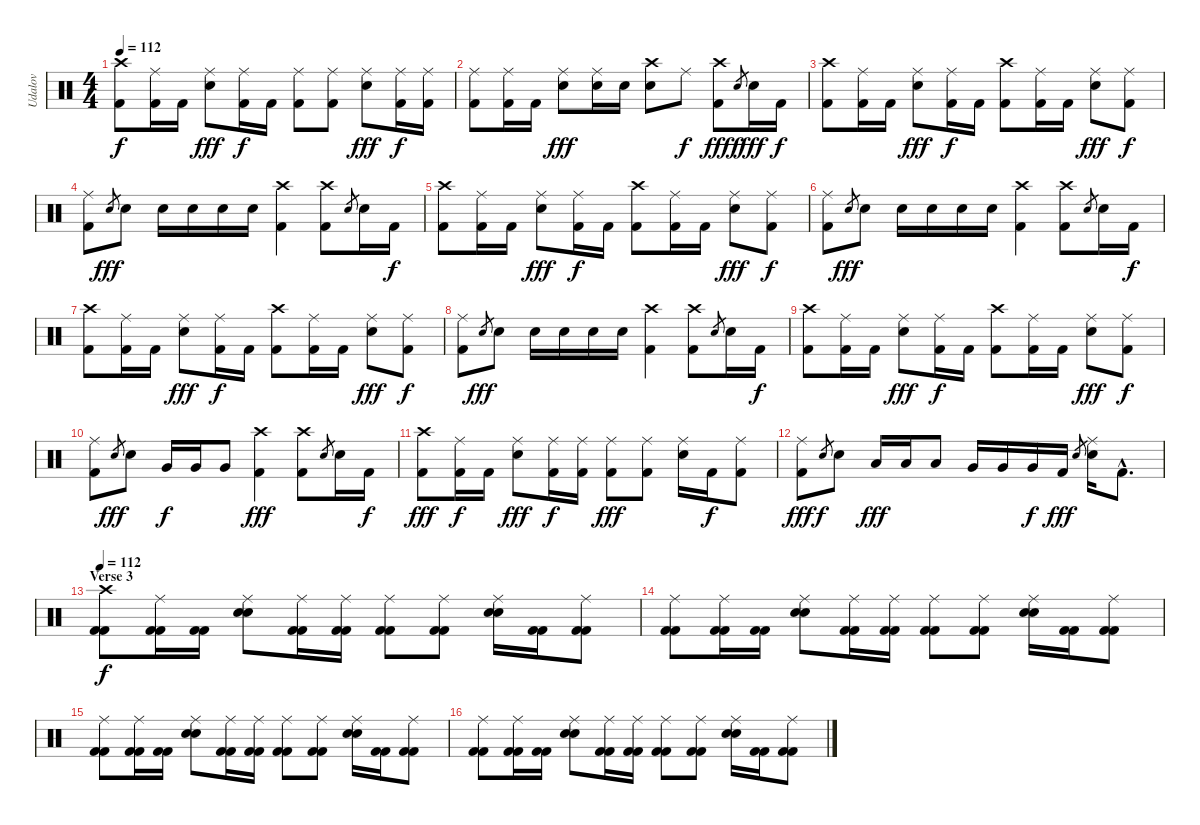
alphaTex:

\track ("Udalov" "Udalov") {instrument percussion}
\staff {score}
\articulation defaults
\ts (4 4)
\tempo 112
\clef neutral
\ks c
("Crash high (hit)" "Kick (hit) 2").8{dy f} ("Ride (middle)" "Kick (hit) 2").16 "Kick (hit) 2".16 ("Ride (middle)" "Electric Snare (hit)").8{dy fff} ("Ride (middle)" "Kick (hit) 2").16{dy f} "Kick (hit) 2".16 ("Ride (middle)" "Kick (hit) 2").8 ("Ride (middle)" "Kick (hit) 2").8 ("Ride (middle)" "Electric Snare (hit)").8{dy fff} ("Ride (middle)" "Kick (hit) 2").16{dy f} ("Ride (middle)" "Kick (hit) 2").16 |
("Ride (middle)" "Kick (hit) 2").8 ("Ride (middle)" "Kick (hit) 2").16 "Kick (hit) 2".16 ("Ride (middle)" "Electric Snare (hit)").8{dy fff} ("Ride (middle)" "Electric Snare (hit)").16 "Electric Snare (hit)".16 ("Crash high (hit)" "Electric Snare (hit)").8 "Ride (middle)".8{dy f} ("Crash high (hit)" "Kick (hit) 2").8{dy fff} "Electric Snare (hit)".8{gr dy f} "Electric Snare (hit)".16{dy fff} "Kick (hit) 2".16{dy f} |
("Crash high (hit)" "Kick (hit) 2").8 ("Ride (middle)" "Kick (hit) 2").16 "Kick (hit) 2".16 ("Ride (middle)" "Electric Snare (hit)").8{dy fff} ("Ride (middle)" "Kick (hit) 2").16{dy f} "Kick (hit) 2".16 ("Crash high (hit)" "Kick (hit) 2").8 ("Ride (middle)" "Kick (hit) 2").16 "Kick (hit) 2".16 ("Ride (middle)" "Electric Snare (hit)").8{dy fff} ("Ride (middle)" "Kick (hit) 2").8{dy f} |
("Ride (middle)" "Kick (hit) 2").8 "Electric Snare (hit)".8{gr dy fff} "Electric Snare (hit)".8 "Electric Snare (hit)".16 "Electric Snare (hit)".16 "Electric Snare (hit)".16 "Electric Snare (hit)".16 ("Crash high (hit)" "Kick (hit) 2").4 ("Crash high (hit)" "Kick (hit) 2").8 "Electric Snare (hit)".8{gr} "Electric Snare (hit)".16 "Kick (hit) 2".16{dy f} |
("Crash high (hit)" "Kick (hit) 2").8 ("Ride (middle)" "Kick (hit) 2").16 "Kick (hit) 2".16 ("Ride (middle)" "Electric Snare (hit)").8{dy fff} ("Ride (middle)" "Kick (hit) 2").16{dy f} "Kick (hit) 2".16 ("Crash high (hit)" "Kick (hit) 2").8 ("Ride (middle)" "Kick (hit) 2").16 "Kick (hit) 2".16 ("Ride (middle)" "Electric Snare (hit)").8{dy fff} ("Ride (middle)" "Kick (hit) 2").8{dy f} |
("Ride (middle)" "Kick (hit) 2").8 "Electric Snare (hit)".8{gr dy fff} "Electric Snare (hit)".8 "Electric Snare (hit)".16 "Electric Snare (hit)".16 "Electric Snare (hit)".16 "Electric Snare (hit)".16 ("Crash high (hit)" "Kick (hit) 2").4 ("Crash high (hit)" "Kick (hit) 2").8 "Electric Snare (hit)".8{gr} "Electric Snare (hit)".16 "Kick (hit) 2".16{dy f} |
("Crash high (hit)" "Kick (hit) 2").8 ("Ride (middle)" "Kick (hit) 2").16 "Kick (hit) 2".16 ("Ride (middle)" "Electric Snare (hit)").8{dy fff} ("Ride (middle)" "Kick (hit) 2").16{dy f} "Kick (hit) 2".16 ("Crash high (hit)" "Kick (hit) 2").8 ("Ride (middle)" "Kick (hit) 2").16 "Kick (hit) 2".16 ("Ride (middle)" "Electric Snare (hit)").8{dy fff} ("Ride (middle)" "Kick (hit) 2").8{dy f} |
("Ride (middle)" "Kick (hit) 2").8 "Electric Snare (hit)".8{gr dy fff} "Electric Snare (hit)".8 "Electric Snare (hit)".16 "Electric Snare (hit)".16 "Electric Snare (hit)".16 "Electric Snare (hit)".16 ("Crash high (hit)" "Kick (hit) 2").4 ("Crash high (hit)" "Kick (hit) 2").8 "Electric Snare (hit)".8{gr} "Electric Snare (hit)".16 "Kick (hit) 2".16{dy f} |
("Crash high (hit)" "Kick (hit) 2").8 ("Ride (middle)" "Kick (hit) 2").16 "Kick (hit) 2".16 ("Ride (middle)" "Electric Snare (hit)").8{dy fff} ("Ride (middle)" "Kick (hit) 2").16{dy f} "Kick (hit) 2".16 ("Crash high (hit)" "Kick (hit) 2").8 ("Ride (middle)" "Kick (hit) 2").16 "Kick (hit) 2".16 ("Ride (middle)" "Electric Snare (hit)").8{dy fff} ("Ride (middle)" "Kick (hit) 2").8{dy f} |
("Ride (middle)" "Kick (hit) 2").8 "Electric Snare (hit)".8{gr dy fff} "Electric Snare (hit)".8 "Very Low Tom (hit)".16{dy f} "Very Low Tom (hit)".16 "Very Low Tom (hit)".8 ("Crash high (hit)" "Kick (hit) 2").4{dy fff} ("Crash high (hit)" "Kick (hit) 2").8 "Electric Snare (hit)".8{gr} "Electric Snare (hit)".16 "Kick (hit) 2".16{dy f} |
("Crash high (hit)" "Kick (hit) 2").8{dy fff} ("Ride (middle)" "Kick (hit) 2").16{dy f} "Kick (hit) 2".16 ("Ride (middle)" "Electric Snare (hit)").8{dy fff} ("Ride (middle)" "Kick (hit) 2").16{dy f} ("Ride (middle)" "Kick (hit) 2").16 ("Ride (middle)" "Kick (hit) 2").8{dy fff} ("Ride (middle)" "Kick (hit) 2").8 ("Ride (middle)" "Electric Snare (hit)").16 "Kick (hit) 2".16{dy f} ("Ride (middle)" "Kick (hit) 2").8 |
("Ride (middle)" "Kick (hit) 2").8{dy fff} "Electric Snare (hit)".8{gr dy f} "Electric Snare (hit)".8 "Low Tom (hit)".16{dy fff} "Low Tom (hit)".16 "Low Tom (hit)".8 "Very Low Tom (hit)".16 "Very Low Tom (hit)".16 "Very Low Tom (hit)".16{dy f} "Kick (hit) 2".16{dy fff} "Electric Snare (hit)".8{gr} ("Ride (middle)" "Electric Snare (hit)").16 "Kick (hit) 2"{hac}.8{d} |
\section ("" "Verse 3")
\tempo 112
("Crash high (hit)" "Kick (hit) 2" "Kick (hit) 2").8{dy f} ("Ride (middle)" "Kick (hit) 2" "Kick (hit) 2").16 ("Kick (hit) 2" "Kick (hit) 2").16 ("Ride (middle)" "Electric Snare (hit)" "Electric Snare (hit)").8 ("Ride (middle)" "Kick (hit) 2" "Kick (hit) 2").16 ("Ride (middle)" "Kick (hit) 2" "Kick (hit) 2").16 ("Ride (middle)" "Kick (hit) 2" "Kick (hit) 2").8 ("Ride (middle)" "Kick (hit) 2" "Kick (hit) 2").8 ("Ride (middle)" "Electric Snare (hit)" "Electric Snare (hit)").16 ("Kick (hit) 2" "Kick (hit) 2").16 ("Ride (middle)" "Kick (hit) 2" "Kick (hit) 2").8 |
("Ride (middle)" "Kick (hit) 2" "Kick (hit) 2").8 ("Ride (middle)" "Kick (hit) 2" "Kick (hit) 2").16 ("Kick (hit) 2" "Kick (hit) 2").16 ("Ride (middle)" "Electric Snare (hit)" "Electric Snare (hit)").8 ("Ride (middle)" "Kick (hit) 2" "Kick (hit) 2").16 ("Ride (middle)" "Kick (hit) 2" "Kick (hit) 2").16 ("Ride (middle)" "Kick (hit) 2" "Kick (hit) 2").8 ("Ride (middle)" "Kick (hit) 2" "Kick (hit) 2").8 ("Ride (middle)" "Electric Snare (hit)" "Electric Snare (hit)").16 ("Kick (hit) 2" "Kick (hit) 2").16 ("Ride (middle)" "Kick (hit) 2" "Kick (hit) 2").8 |
("Ride (middle)" "Kick (hit) 2" "Kick (hit) 2").8 ("Ride (middle)" "Kick (hit) 2" "Kick (hit) 2").16 ("Kick (hit) 2" "Kick (hit) 2").16 ("Ride (middle)" "Electric Snare (hit)" "Electric Snare (hit)").8 ("Ride (middle)" "Kick (hit) 2" "Kick (hit) 2").16 ("Ride (middle)" "Kick (hit) 2" "Kick (hit) 2").16 ("Ride (middle)" "Kick (hit) 2" "Kick (hit) 2").8 ("Ride (middle)" "Kick (hit) 2" "Kick (hit) 2").8 ("Ride (middle)" "Electric Snare (hit)" "Electric Snare (hit)").16 ("Kick (hit) 2" "Kick (hit) 2").16 ("Ride (middle)" "Kick (hit) 2" "Kick (hit) 2").8 |
("Ride (middle)" "Kick (hit) 2" "Kick (hit) 2").8 ("Ride (middle)" "Kick (hit) 2" "Kick (hit) 2").16 ("Kick (hit) 2" "Kick (hit) 2").16 ("Ride (middle)" "Electric Snare (hit)" "Electric Snare (hit)").8 ("Ride (middle)" "Kick (hit) 2" "Kick (hit) 2").16 ("Ride (middle)" "Kick (hit) 2" "Kick (hit) 2").16 ("Ride (middle)" "Kick (hit) 2" "Kick (hit) 2").8 ("Ride (middle)" "Kick (hit) 2" "Kick (hit) 2").8 ("Ride (middle)" "Electric Snare (hit)" "Electric Snare (hit)").16 ("Kick (hit) 2" "Kick (hit) 2").16 ("Ride (middle)" "Kick (hit) 2" "Kick (hit) 2").8
